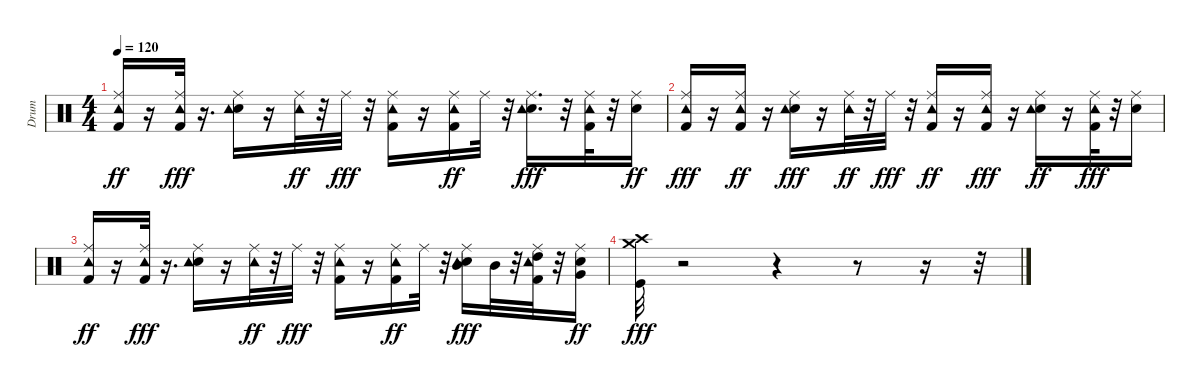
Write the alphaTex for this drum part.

\track ("Drum" "Drum") {instrument percussion}
\staff {score}
\articulation defaults
\ts (4 4)
\tempo 120
\clef neutral
\ks c
("Kick (hit) 2" "Ride (middle)" "Tambourine (hit)").16{dy ff} r.16 ("Kick (hit) 2" "Ride (middle)" "Tambourine (hit)").32{dy fff} r.16{d} ("Electric Snare (hit)" "Ride (middle)" "Tambourine (hit)").16 r.16 ("Ride (middle)" "Tambourine (hit)").32{dy ff} r.32 "Ride (middle)".32{dy fff} r.32 ("Kick (hit) 2" "Ride (middle)" "Tambourine (hit)").16 r.16 ("Kick (hit) 2" "Ride (middle)" "Tambourine (hit)").16{dy ff} "Ride (middle)".32 r.32 ("Electric Snare (hit)" "Ride (middle)" "Tambourine (hit)").16{d dy fff} r.32 ("Kick (hit) 2" "Ride (middle)" "Tambourine (hit)").32 r.32 ("Electric Snare (hit)" "Ride (middle)").16{dy ff} |
("Kick (hit) 2" "Ride (middle)" "Tambourine (hit)").16{dy fff} r.16 ("Kick (hit) 2" "Ride (middle)" "Tambourine (hit)").16{dy ff} r.16 ("Electric Snare (hit)" "Ride (middle)" "Tambourine (hit)").16{dy fff} r.16 ("Ride (middle)" "Tambourine (hit)").32{dy ff} r.32 "Ride (middle)".32{dy fff} r.32 ("Kick (hit) 2" "Ride (middle)" "Tambourine (hit)").16{dy ff} r.16 ("Kick (hit) 2" "Ride (middle)" "Tambourine (hit)").16{dy fff} r.16 ("Electric Snare (hit)" "Ride (middle)" "Tambourine (hit)").16{dy ff} r.16 ("Kick (hit) 2" "Ride (middle)" "Tambourine (hit)").32{dy fff} r.32 ("Electric Snare (hit)" "Ride (middle)").16 |
("Kick (hit) 2" "Ride (middle)" "Tambourine (hit)").16{dy ff} r.16 ("Kick (hit) 2" "Ride (middle)" "Tambourine (hit)").32{dy fff} r.16{d} ("Electric Snare (hit)" "Ride (middle)" "Tambourine (hit)").16 r.16 ("Ride (middle)" "Tambourine (hit)").32{dy ff} r.32 "Ride (middle)".32{dy fff} r.32 ("Kick (hit) 2" "Ride (middle)" "Tambourine (hit)").16 r.16 ("Kick (hit) 2" "Ride (middle)" "Tambourine (hit)").16{dy ff} "Ride (middle)".32 r.32 ("Electric Snare (hit)" "Mid Tom (hit)" "Ride (middle)" "Tambourine (hit)").16{dy fff} "Mid Tom (hit)".32 r.32 ("Kick (hit) 2" "High Tom (hit)" "Ride (middle)" "Tambourine (hit)").32 r.32 ("Electric Snare (hit)" "Very Low Tom (hit)" "Ride (middle)").16{dy ff} |
("Kick (hit)" "Crash high (hit)" "Crash medium (hit)").32{dy fff} r.2 r.4 r.8 r.16 r.32
